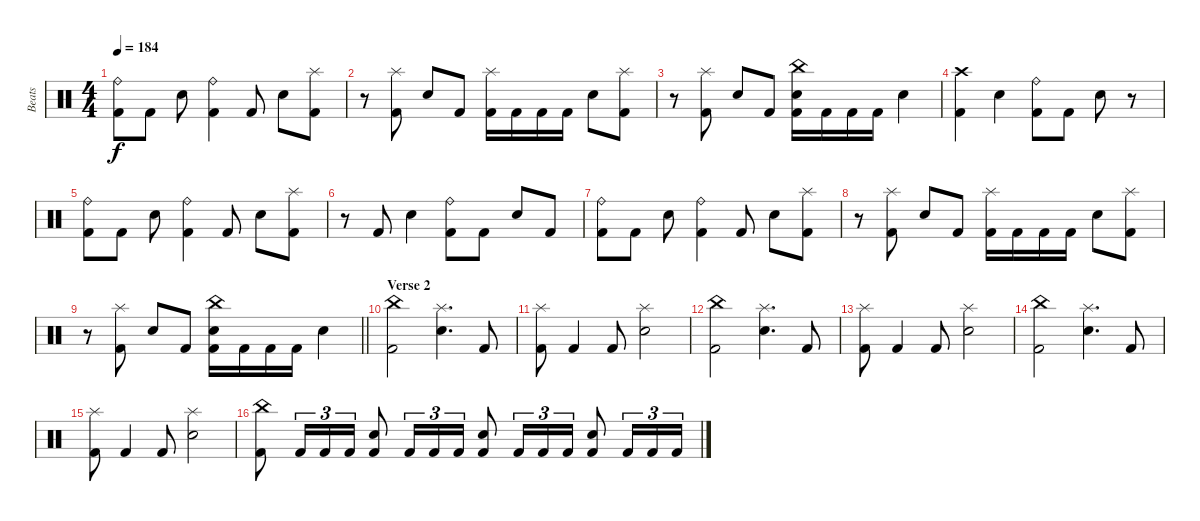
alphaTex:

\track ("Beats" "Beats") {instrument percussion}
\staff {score}
\articulation defaults
\ts (4 4)
\tempo 184
\clef neutral
\ks c
("Ride (bell)" "Kick (hit) 2").8{dy f} "Kick (hit) 2".8 "Electric Snare (hit)".8 ("Ride (bell)" "Kick (hit) 2").4 "Kick (hit) 2".8 "Electric Snare (hit)".8 ("Splash (hit)" "Kick (hit) 2").8 |
r.8 ("Splash (hit)" "Kick (hit) 2").8 "Electric Snare (hit)".8 "Kick (hit) 2".8 ("Splash (hit)" "Kick (hit) 2").16 "Kick (hit) 2".16 "Kick (hit) 2".16 "Kick (hit) 2".16 "Electric Snare (hit)".8 ("Splash (hit)" "Kick (hit) 2").8 |
r.8 ("Splash (hit)" "Kick (hit) 2").8 "Electric Snare (hit)".8 "Kick (hit) 2".8 ("China (hit)" "Electric Snare (hit)" "Kick (hit) 2").16 "Kick (hit) 2".16 "Kick (hit) 2".16 "Kick (hit) 2".16 "Electric Snare (hit)".4 |
("Crash high (hit)" "Kick (hit) 2").4 "Electric Snare (hit)".4 ("Ride (bell)" "Kick (hit) 2").8 "Kick (hit) 2".8 "Electric Snare (hit)".8 r.8 |
("Ride (bell)" "Kick (hit) 2").8 "Kick (hit) 2".8 "Electric Snare (hit)".8 ("Ride (bell)" "Kick (hit) 2").4 "Kick (hit) 2".8 "Electric Snare (hit)".8 ("Splash (hit)" "Kick (hit) 2").8 |
r.8 "Kick (hit) 2".8 "Electric Snare (hit)".4 ("Ride (bell)" "Kick (hit) 2").8 "Kick (hit) 2".8 "Electric Snare (hit)".8 "Kick (hit) 2".8 |
("Ride (bell)" "Kick (hit) 2").8 "Kick (hit) 2".8 "Electric Snare (hit)".8 ("Ride (bell)" "Kick (hit) 2").4 "Kick (hit) 2".8 "Electric Snare (hit)".8 ("Splash (hit)" "Kick (hit) 2").8 |
r.8 ("Splash (hit)" "Kick (hit) 2").8 "Electric Snare (hit)".8 "Kick (hit) 2".8 ("Splash (hit)" "Kick (hit) 2").16 "Kick (hit) 2".16 "Kick (hit) 2".16 "Kick (hit) 2".16 "Electric Snare (hit)".8 ("Splash (hit)" "Kick (hit) 2").8 |
\barLineRight lightlight
r.8 ("Splash (hit)" "Kick (hit) 2").8 "Electric Snare (hit)".8 "Kick (hit) 2".8 ("China (hit)" "Electric Snare (hit)" "Kick (hit) 2").16 "Kick (hit) 2".16 "Kick (hit) 2".16 "Kick (hit) 2".16 "Electric Snare (hit)".4 |
\section ("" "Verse 2")
("China (hit)" "Kick (hit) 2").2 ("Splash (hit)" "Electric Snare (hit)").4{d} "Kick (hit) 2".8 |
("Splash (hit)" "Kick (hit) 2").8 "Kick (hit) 2".4 "Kick (hit) 2".8 ("Splash (hit)" "Electric Snare (hit)").2 |
("China (hit)" "Kick (hit) 2").2 ("Splash (hit)" "Electric Snare (hit)").4{d} "Kick (hit) 2".8 |
("Splash (hit)" "Kick (hit) 2").8 "Kick (hit) 2".4 "Kick (hit) 2".8 ("Splash (hit)" "Electric Snare (hit)").2 |
("China (hit)" "Kick (hit) 2").2 ("Splash (hit)" "Electric Snare (hit)").4{d} "Kick (hit) 2".8 |
("Splash (hit)" "Kick (hit) 2").8 "Kick (hit) 2".4 "Kick (hit) 2".8 ("Splash (hit)" "Electric Snare (hit)").2 |
("China (hit)" "Kick (hit) 2").8 "Kick (hit) 2".16{tu (3 2)} "Kick (hit) 2".16{tu (3 2)} "Kick (hit) 2".16{tu (3 2)} ("Electric Snare (hit)" "Kick (hit) 2").8 "Kick (hit) 2".16{tu (3 2)} "Kick (hit) 2".16{tu (3 2)} "Kick (hit) 2".16{tu (3 2)} ("Electric Snare (hit)" "Kick (hit) 2").8 "Kick (hit) 2".16{tu (3 2)} "Kick (hit) 2".16{tu (3 2)} "Kick (hit) 2".16{tu (3 2)} ("Electric Snare (hit)" "Kick (hit) 2").8 "Kick (hit) 2".16{tu (3 2)} "Kick (hit) 2".16{tu (3 2)} "Kick (hit) 2".16{tu (3 2)}
